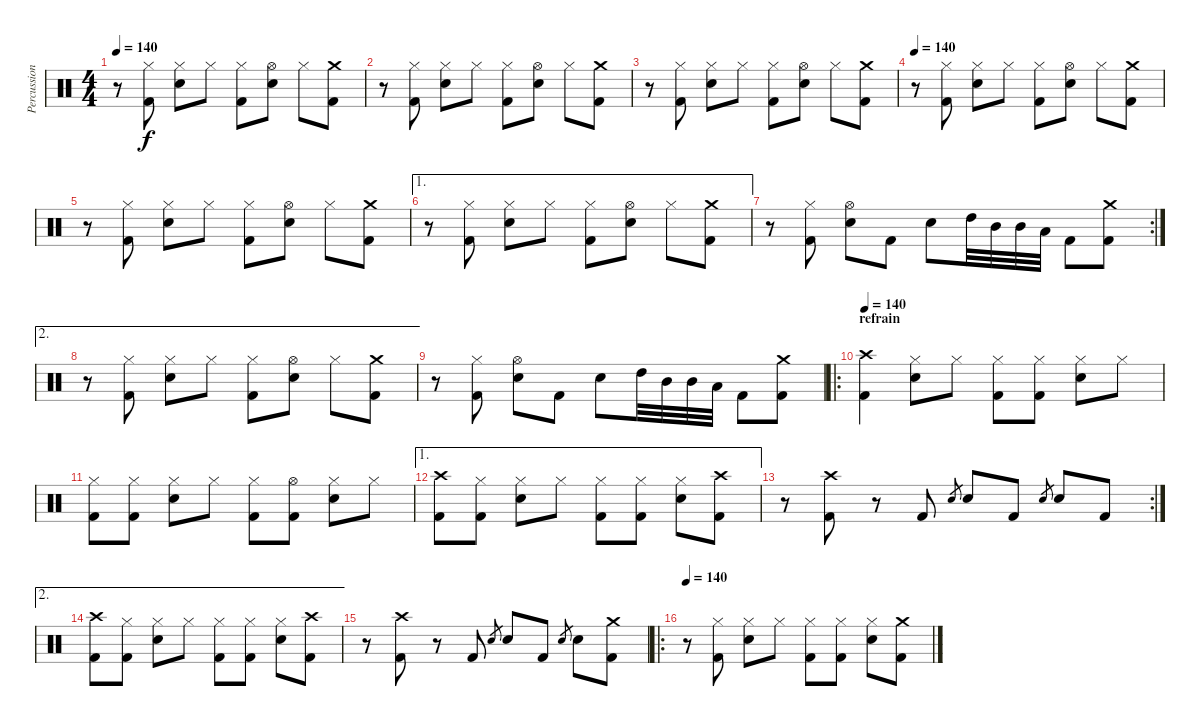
\track ("Percussions" "Percussion") {instrument percussion}
\staff {score}
\articulation defaults
\ts (4 4)
\tempo 140
\clef neutral
\ks c
r.8{dy f} ("Hi-Hat (closed)" "Kick (hit) 2").8 ("Hi-Hat (closed)" "Electric Snare (hit)").8 "Hi-Hat (closed)".8 ("Hi-Hat (closed)" "Kick (hit) 2").8 ("Hi-Hat (open)" "Electric Snare (hit)").8 "Hi-Hat (closed)".8 ("Crash medium (hit)" "Kick (hit) 2").8 |
r.8 ("Hi-Hat (closed)" "Kick (hit) 2").8 ("Hi-Hat (closed)" "Electric Snare (hit)").8 "Hi-Hat (closed)".8 ("Hi-Hat (closed)" "Kick (hit) 2").8 ("Hi-Hat (open)" "Electric Snare (hit)").8 "Hi-Hat (closed)".8 ("Crash medium (hit)" "Kick (hit) 2").8 |
r.8 ("Hi-Hat (closed)" "Kick (hit) 2").8 ("Hi-Hat (closed)" "Electric Snare (hit)").8 "Hi-Hat (closed)".8 ("Hi-Hat (closed)" "Kick (hit) 2").8 ("Hi-Hat (open)" "Electric Snare (hit)").8 "Hi-Hat (closed)".8 ("Crash medium (hit)" "Kick (hit) 2").8 |
\tempo 140
r.8 ("Hi-Hat (closed)" "Kick (hit) 2").8 ("Hi-Hat (closed)" "Electric Snare (hit)").8 "Hi-Hat (closed)".8 ("Hi-Hat (closed)" "Kick (hit) 2").8 ("Hi-Hat (open)" "Electric Snare (hit)").8 "Hi-Hat (closed)".8 ("Crash medium (hit)" "Kick (hit) 2").8 |
r.8 ("Hi-Hat (closed)" "Kick (hit) 2").8 ("Hi-Hat (closed)" "Electric Snare (hit)").8 "Hi-Hat (closed)".8 ("Hi-Hat (closed)" "Kick (hit) 2").8 ("Hi-Hat (open)" "Electric Snare (hit)").8 "Hi-Hat (closed)".8 ("Crash medium (hit)" "Kick (hit) 2").8 |
\ae 1
r.8 ("Hi-Hat (closed)" "Kick (hit) 2").8 ("Hi-Hat (closed)" "Electric Snare (hit)").8 "Hi-Hat (closed)".8 ("Hi-Hat (closed)" "Kick (hit) 2").8 ("Hi-Hat (open)" "Electric Snare (hit)").8 "Hi-Hat (closed)".8 ("Crash medium (hit)" "Kick (hit) 2").8 |
\rc 2
r.8 ("Hi-Hat (closed)" "Kick (hit) 2").8 ("Hi-Hat (open)" "Electric Snare (hit)").8 "Kick (hit) 2".8 "Electric Snare (hit)".8 "High Tom (hit)".32 "Mid Tom (hit)".32 "Mid Tom (hit)".32 "Low Tom (hit)".32 "Kick (hit) 2".8 ("Crash medium (hit)" "Kick (hit) 2").8 |
\ae 2
r.8 ("Hi-Hat (closed)" "Kick (hit) 2").8 ("Hi-Hat (closed)" "Electric Snare (hit)").8 "Hi-Hat (closed)".8 ("Hi-Hat (closed)" "Kick (hit) 2").8 ("Hi-Hat (open)" "Electric Snare (hit)").8 "Hi-Hat (closed)".8 ("Crash medium (hit)" "Kick (hit) 2").8 |
r.8 ("Hi-Hat (closed)" "Kick (hit) 2").8 ("Hi-Hat (open)" "Electric Snare (hit)").8 "Kick (hit) 2".8 "Electric Snare (hit)".8 "High Tom (hit)".32 "Mid Tom (hit)".32 "Mid Tom (hit)".32 "Low Tom (hit)".32 "Kick (hit) 2".8 ("Crash medium (hit)" "Kick (hit) 2").8 |
\ro
\section ("" "refrain")
\tempo 140
("Crash high (hit)" "Kick (hit) 2").4 ("Hi-Hat (closed)" "Electric Snare (hit)").8 "Hi-Hat (closed)".8 ("Hi-Hat (closed)" "Kick (hit) 2").8 ("Hi-Hat (closed)" "Kick (hit) 2").8 ("Hi-Hat (closed)" "Electric Snare (hit)").8 "Hi-Hat (closed)".8 |
("Hi-Hat (closed)" "Kick (hit) 2").8 ("Hi-Hat (closed)" "Kick (hit) 2").8 ("Hi-Hat (closed)" "Electric Snare (hit)").8 "Hi-Hat (closed)".8 ("Hi-Hat (closed)" "Kick (hit) 2").8 ("Hi-Hat (open)" "Kick (hit) 2").8 ("Hi-Hat (closed)" "Electric Snare (hit)").8 "Hi-Hat (closed)".8 |
\ae 1
("Crash high (hit)" "Kick (hit) 2").8 ("Hi-Hat (closed)" "Kick (hit) 2").8 ("Hi-Hat (closed)" "Electric Snare (hit)").8 "Hi-Hat (closed)".8 ("Hi-Hat (closed)" "Kick (hit) 2").8 ("Hi-Hat (closed)" "Kick (hit) 2").8 ("Hi-Hat (closed)" "Electric Snare (hit)").8 ("Crash high (hit)" "Kick (hit) 2").8 |
\rc 2
r.8 ("Crash high (hit)" "Kick (hit) 2").8 r.8 "Kick (hit) 2".8 "Electric Snare (hit)".8{gr} "Electric Snare (hit)".8 "Kick (hit) 2".8 "Electric Snare (hit)".8{gr} "Electric Snare (hit)".8 "Kick (hit) 2".8 |
\ae 2
("Crash high (hit)" "Kick (hit) 2").8 ("Hi-Hat (closed)" "Kick (hit) 2").8 ("Hi-Hat (closed)" "Electric Snare (hit)").8 "Hi-Hat (closed)".8 ("Hi-Hat (closed)" "Kick (hit) 2").8 ("Hi-Hat (closed)" "Kick (hit) 2").8 ("Hi-Hat (closed)" "Electric Snare (hit)").8 ("Crash high (hit)" "Kick (hit) 2").8 |
r.8 ("Crash high (hit)" "Kick (hit) 2").8 r.8 "Kick (hit) 2".8 "Electric Snare (hit)".8{gr} "Electric Snare (hit)".8 "Kick (hit) 2".8 "Electric Snare (hit)".8{gr} "Electric Snare (hit)".8 ("Crash medium (hit)" "Kick (hit) 2").8 |
\ro
\tempo 140
r.8 ("Hi-Hat (closed)" "Kick (hit) 2").8 ("Hi-Hat (closed)" "Electric Snare (hit)").8 "Hi-Hat (closed)".8 ("Hi-Hat (closed)" "Kick (hit) 2").8 ("Hi-Hat (closed)" "Kick (hit) 2").8 ("Hi-Hat (closed)" "Electric Snare (hit)").8 ("Crash medium (hit)" "Kick (hit) 2").8
